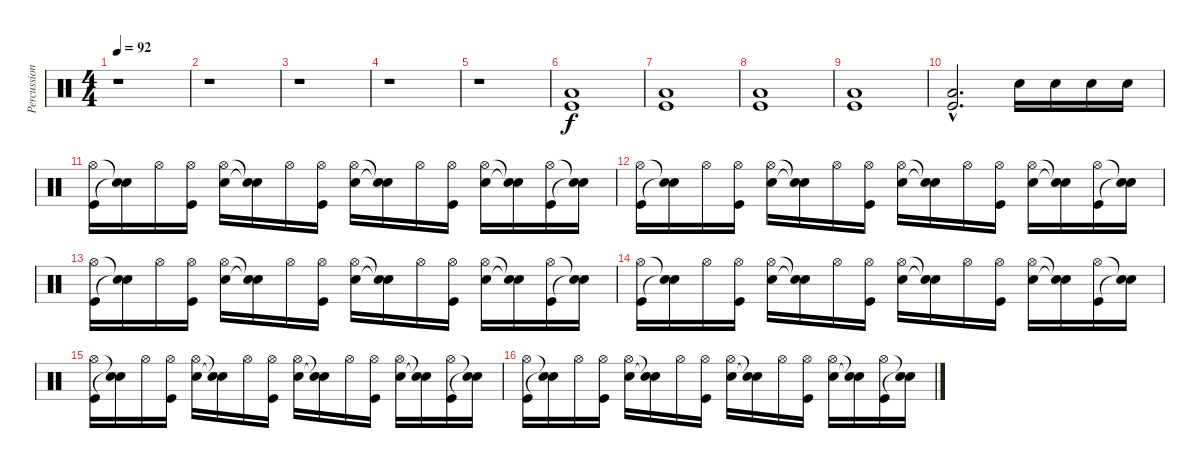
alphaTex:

\track ("Percussion" "Percussion") {instrument percussion}
\staff {score}
\articulation defaults
\ts (4 4)
\tempo 92
\clef neutral
\ks c
r.1{dy f} |
r.1 |
r.1 |
r.1 |
r.1 |
("Kick (hit)" "Low Floor Tom (hit)").1 |
("Kick (hit)" "Low Floor Tom (hit)").1 |
("Kick (hit)" "Low Floor Tom (hit)").1 |
("Kick (hit)" "Low Floor Tom (hit)").1 |
("Kick (hit)"{hac} "Low Floor Tom (hit)"{hac}).2{d} "Electric Snare (hit)".16 "Electric Snare (hit)".16 "Electric Snare (hit)".16 "Electric Snare (hit)".16 |
("Hi-Hat (open)" "Kick (hit)").16 ("Snare (hit)"{t} "Snare (hit)"{t}).16 "Hi-Hat (open)".16 ("Hi-Hat (open)" "Kick (hit)").16 ("Hi-Hat (open)" "Snare (hit) 2").16 ("Snare (hit)"{t} "Snare (hit)"{t}).16 "Hi-Hat (open)".16 ("Hi-Hat (open)" "Kick (hit)").16 ("Hi-Hat (open)" "Snare (hit) 2").16 ("Snare (hit)"{t} "Snare (hit)"{t}).16 "Hi-Hat (open)".16 ("Hi-Hat (open)" "Kick (hit)").16 ("Hi-Hat (open)" "Snare (hit) 2").16 ("Snare (hit)"{t} "Snare (hit)"{t}).16 ("Hi-Hat (open)" "Kick (hit)").16 ("Snare (hit)"{t} "Snare (hit)"{t}).16 |
("Hi-Hat (open)" "Kick (hit)").16 ("Snare (hit)"{t} "Snare (hit)"{t}).16 "Hi-Hat (open)".16 ("Hi-Hat (open)" "Kick (hit)").16 ("Hi-Hat (open)" "Snare (hit) 2").16 ("Snare (hit)"{t} "Snare (hit)"{t}).16 "Hi-Hat (open)".16 ("Hi-Hat (open)" "Kick (hit)").16 ("Hi-Hat (open)" "Snare (hit) 2").16 ("Snare (hit)"{t} "Snare (hit)"{t}).16 "Hi-Hat (open)".16 ("Hi-Hat (open)" "Kick (hit)").16 ("Hi-Hat (open)" "Snare (hit) 2").16 ("Snare (hit)"{t} "Snare (hit)"{t}).16 ("Hi-Hat (open)" "Kick (hit)").16 ("Snare (hit)"{t} "Snare (hit)"{t}).16 |
("Hi-Hat (open)" "Kick (hit)").16 ("Snare (hit)"{t} "Snare (hit)"{t}).16 "Hi-Hat (open)".16 ("Hi-Hat (open)" "Kick (hit)").16 ("Hi-Hat (open)" "Snare (hit) 2").16 ("Snare (hit)"{t} "Snare (hit)"{t}).16 "Hi-Hat (open)".16 ("Hi-Hat (open)" "Kick (hit)").16 ("Hi-Hat (open)" "Snare (hit) 2").16 ("Snare (hit)"{t} "Snare (hit)"{t}).16 "Hi-Hat (open)".16 ("Hi-Hat (open)" "Kick (hit)").16 ("Hi-Hat (open)" "Snare (hit) 2").16 ("Snare (hit)"{t} "Snare (hit)"{t}).16 ("Hi-Hat (open)" "Kick (hit)").16 ("Snare (hit)"{t} "Snare (hit)"{t}).16 |
("Hi-Hat (open)" "Kick (hit)").16 ("Snare (hit)"{t} "Snare (hit)"{t}).16 "Hi-Hat (open)".16 ("Hi-Hat (open)" "Kick (hit)").16 ("Hi-Hat (open)" "Snare (hit) 2").16 ("Snare (hit)"{t} "Snare (hit)"{t}).16 "Hi-Hat (open)".16 ("Hi-Hat (open)" "Kick (hit)").16 ("Hi-Hat (open)" "Snare (hit) 2").16 ("Snare (hit)"{t} "Snare (hit)"{t}).16 "Hi-Hat (open)".16 ("Hi-Hat (open)" "Kick (hit)").16 ("Hi-Hat (open)" "Snare (hit) 2").16 ("Snare (hit)"{t} "Snare (hit)"{t}).16 ("Hi-Hat (open)" "Kick (hit)").16 ("Snare (hit)"{t} "Snare (hit)"{t}).16 |
("Hi-Hat (open)" "Kick (hit)").16 ("Snare (hit)"{t} "Snare (hit)"{t}).16 "Hi-Hat (open)".16 ("Hi-Hat (open)" "Kick (hit)").16 ("Hi-Hat (open)" "Snare (hit) 2").16 ("Snare (hit)"{t} "Snare (hit)"{t}).16 "Hi-Hat (open)".16 ("Hi-Hat (open)" "Kick (hit)").16 ("Hi-Hat (open)" "Snare (hit) 2").16 ("Snare (hit)"{t} "Snare (hit)"{t}).16 "Hi-Hat (open)".16 ("Hi-Hat (open)" "Kick (hit)").16 ("Hi-Hat (open)" "Snare (hit) 2").16 ("Snare (hit)"{t} "Snare (hit)"{t}).16 ("Hi-Hat (open)" "Kick (hit)").16 ("Snare (hit)"{t} "Snare (hit)"{t}).16 |
("Hi-Hat (open)" "Kick (hit)").16 ("Snare (hit)"{t} "Snare (hit)"{t}).16 "Hi-Hat (open)".16 ("Hi-Hat (open)" "Kick (hit)").16 ("Hi-Hat (open)" "Snare (hit) 2").16 ("Snare (hit)"{t} "Snare (hit)"{t}).16 "Hi-Hat (open)".16 ("Hi-Hat (open)" "Kick (hit)").16 ("Hi-Hat (open)" "Snare (hit) 2").16 ("Snare (hit)"{t} "Snare (hit)"{t}).16 "Hi-Hat (open)".16 ("Hi-Hat (open)" "Kick (hit)").16 ("Hi-Hat (open)" "Snare (hit) 2").16 ("Snare (hit)"{t} "Snare (hit)"{t}).16 ("Hi-Hat (open)" "Kick (hit)").16 ("Snare (hit)"{t} "Snare (hit)"{t}).16
